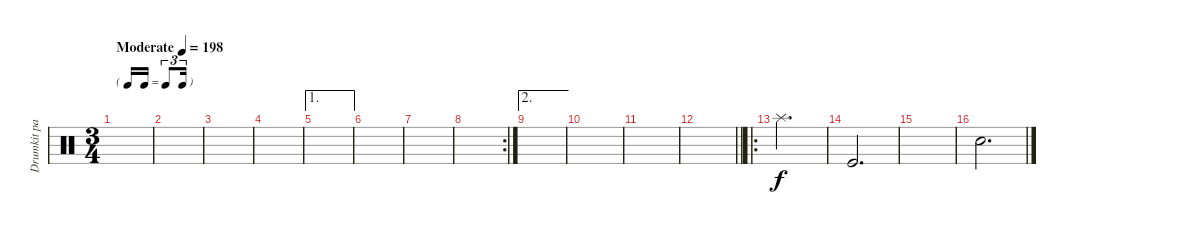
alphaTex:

\track ("Drumkit part 1" "Drumkit pa") {instrument percussion}
\staff {score}
\articulation defaults
\ts (3 4)
\tf triplet16th
\tempo (198 "Moderate")
\clef neutral
\ks c
|
|
|
|
\ae 1
|
|
|
\rc 2
|
\ae 2
|
|
|
\barLineRight lightlight
|
\ro "Splash (hit)".2{d}
|
"Kick (hit)".2{d dy f} |
|
"Snare (hit) 2".2{d}
